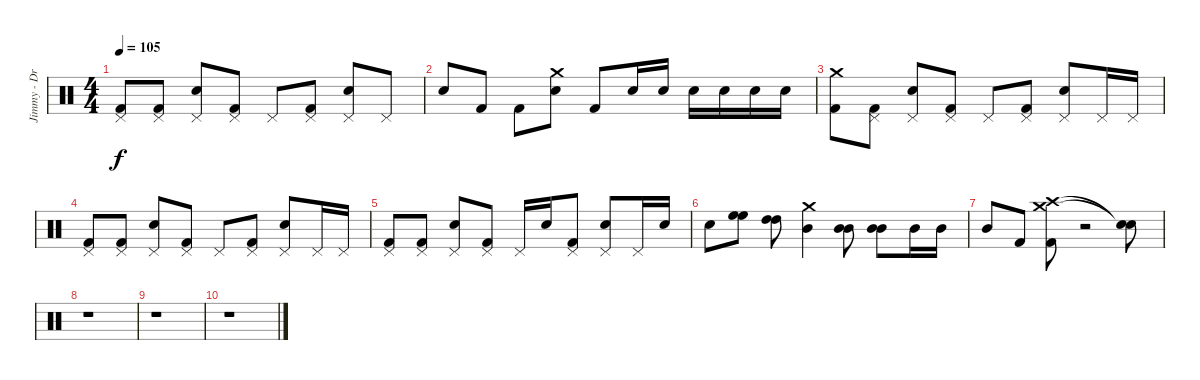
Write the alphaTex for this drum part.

\track ("Jimmy - Drums" "Jimmy - Dr") {instrument percussion}
\staff {score}
\articulation defaults
\ts (4 4)
\tempo 105
\clef neutral
\ks c
("Pedal Hi-Hat (hit)" "Kick (hit) 2").8{dy f} ("Pedal Hi-Hat (hit)" "Kick (hit) 2").8 ("Pedal Hi-Hat (hit)" "Electric Snare (hit)").8 ("Pedal Hi-Hat (hit)" "Kick (hit) 2").8 "Pedal Hi-Hat (hit)".8 ("Pedal Hi-Hat (hit)" "Kick (hit) 2").8 ("Pedal Hi-Hat (hit)" "Electric Snare (hit)").8 "Pedal Hi-Hat (hit)".8 |
"Electric Snare (hit)".8 "Kick (hit) 2".8 "Kick (hit) 2".8 ("Crash medium (hit)" "Electric Snare (hit)").8 "Kick (hit) 2".8 "Electric Snare (hit)".16 "Electric Snare (hit)".16 "Electric Snare (hit)".16 "Electric Snare (hit)".16 "Electric Snare (hit)".16 "Electric Snare (hit)".16 |
("Crash medium (hit)" "Kick (hit) 2").8 ("Pedal Hi-Hat (hit)" "Kick (hit) 2").8 ("Pedal Hi-Hat (hit)" "Electric Snare (hit)").8 ("Pedal Hi-Hat (hit)" "Kick (hit) 2").8 "Pedal Hi-Hat (hit)".8 ("Pedal Hi-Hat (hit)" "Kick (hit) 2").8 ("Pedal Hi-Hat (hit)" "Electric Snare (hit)").8 "Pedal Hi-Hat (hit)".16 "Pedal Hi-Hat (hit)".16 |
("Pedal Hi-Hat (hit)" "Kick (hit) 2").8 ("Pedal Hi-Hat (hit)" "Kick (hit) 2").8 ("Pedal Hi-Hat (hit)" "Electric Snare (hit)").8 ("Pedal Hi-Hat (hit)" "Kick (hit) 2").8 "Pedal Hi-Hat (hit)".8 ("Pedal Hi-Hat (hit)" "Kick (hit) 2").8 ("Pedal Hi-Hat (hit)" "Electric Snare (hit)").8 "Pedal Hi-Hat (hit)".16 "Pedal Hi-Hat (hit)".16 |
("Pedal Hi-Hat (hit)" "Kick (hit) 2").8 ("Pedal Hi-Hat (hit)" "Kick (hit) 2").8 ("Pedal Hi-Hat (hit)" "Electric Snare (hit)").8 ("Pedal Hi-Hat (hit)" "Kick (hit) 2").8 "Pedal Hi-Hat (hit)".16 "Electric Snare (hit)".16 ("Pedal Hi-Hat (hit)" "Kick (hit) 2").8 ("Pedal Hi-Hat (hit)" "Electric Snare (hit)").8 "Pedal Hi-Hat (hit)".16 "Electric Snare (hit)".16 |
"Electric Snare (hit)".8 ("High Floor Tom (hit)" "High Floor Tom (hit)").8 ("High Tom (hit)" "High Tom (hit)").8 ("Crash medium (hit)" "Mid Tom (hit)").4 ("Mid Tom (hit)" "Mid Tom (hit)").8 ("Mid Tom (hit)" "Mid Tom (hit)").8 "Mid Tom (hit)".16 "Mid Tom (hit)".16 |
"Mid Tom (hit)".8 "Kick (hit) 2".8 ("Crash medium (hit)" "Crash high (hit)" "Kick (hit) 2").8 r.2 ("Snare (hit)"{t} "Snare (hit)"{t}).8 |
r.1 |
r.1 |
r.1
